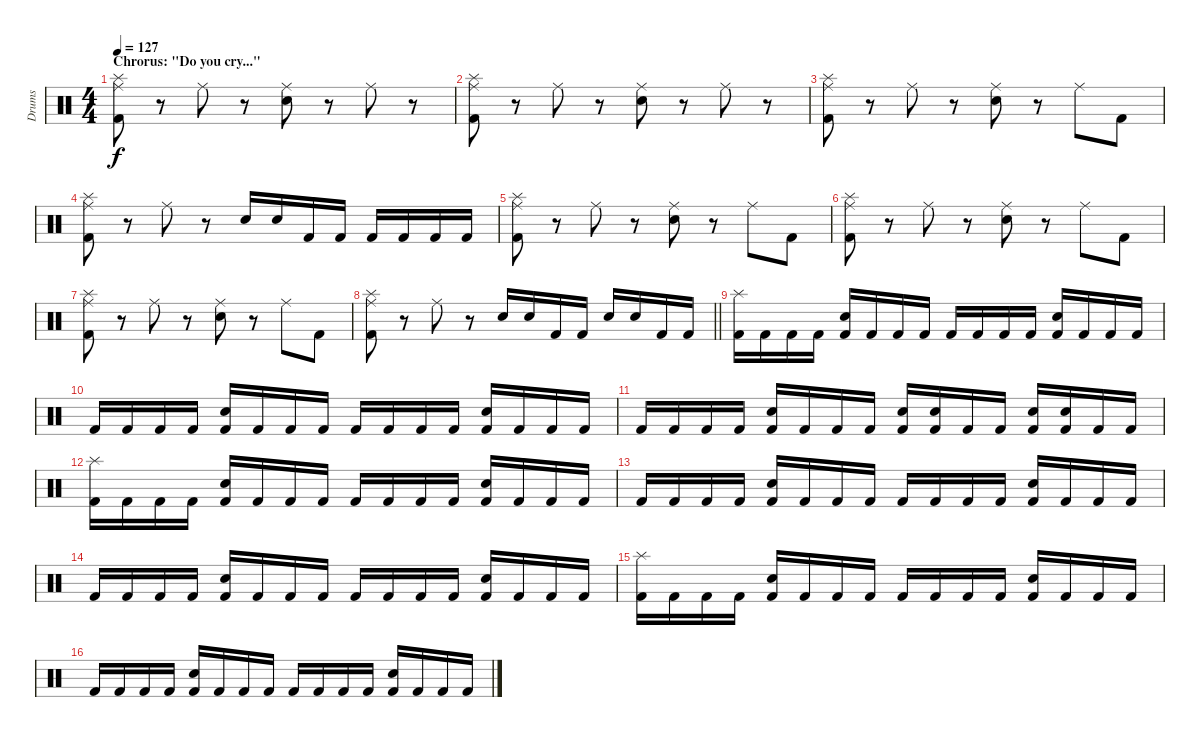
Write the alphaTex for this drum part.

\track ("Drums" "Drums") {instrument percussion}
\staff {score}
\articulation defaults
\ts (4 4)
\section ("" "Chrorus: \"Do you cry...\"")
\tempo 127
\clef neutral
\ks c
("Ride (middle)" "Kick (hit) 2" "Splash (hit)").8{dy f} r.8 "Ride (middle)".8 r.8 ("Ride (middle)" "Electric Snare (hit)").8 r.8 "Ride (middle)".8 r.8 |
("Ride (middle)" "Kick (hit) 2" "Splash (hit)").8 r.8 "Ride (middle)".8 r.8 ("Ride (middle)" "Electric Snare (hit)").8 r.8 "Ride (middle)".8 r.8 |
("Ride (middle)" "Kick (hit) 2" "Splash (hit)").8 r.8 "Ride (middle)".8 r.8 ("Ride (middle)" "Electric Snare (hit)").8 r.8 "Ride (middle)".8 "Kick (hit) 2".8 |
("Ride (middle)" "Kick (hit) 2" "Splash (hit)").8 r.8 "Ride (middle)".8 r.8 "Electric Snare (hit)".16 "Electric Snare (hit)".16 "Kick (hit) 2".16 "Kick (hit) 2".16 "Kick (hit) 2".16 "Kick (hit) 2".16 "Kick (hit) 2".16 "Kick (hit) 2".16 |
("Ride (middle)" "Kick (hit) 2" "Splash (hit)").8 r.8 "Ride (middle)".8 r.8 ("Ride (middle)" "Electric Snare (hit)").8 r.8 "Ride (middle)".8 "Kick (hit) 2".8 |
("Ride (middle)" "Kick (hit) 2" "Splash (hit)").8 r.8 "Ride (middle)".8 r.8 ("Ride (middle)" "Electric Snare (hit)").8 r.8 "Ride (middle)".8 "Kick (hit) 2".8 |
("Ride (middle)" "Kick (hit) 2" "Splash (hit)").8 r.8 "Ride (middle)".8 r.8 ("Ride (middle)" "Electric Snare (hit)").8 r.8 "Ride (middle)".8 "Kick (hit) 2".8 |
\barLineRight lightlight
("Ride (middle)" "Kick (hit) 2" "Splash (hit)").8 r.8 "Ride (middle)".8 r.8 "Electric Snare (hit)".16 "Electric Snare (hit)".16 "Kick (hit) 2".16 "Kick (hit) 2".16 "Electric Snare (hit)".16 "Electric Snare (hit)".16 "Kick (hit) 2".16 "Kick (hit) 2".16 |
\section ("" "")
("Kick (hit) 2" "Splash (hit)").16 "Kick (hit) 2".16 "Kick (hit) 2".16 "Kick (hit) 2".16 ("Kick (hit) 2" "Electric Snare (hit)").16 "Kick (hit) 2".16 "Kick (hit) 2".16 "Kick (hit) 2".16 "Kick (hit) 2".16 "Kick (hit) 2".16 "Kick (hit) 2".16 "Kick (hit) 2".16 ("Kick (hit) 2" "Electric Snare (hit)").16 "Kick (hit) 2".16 "Kick (hit) 2".16 "Kick (hit) 2".16 |
"Kick (hit) 2".16 "Kick (hit) 2".16 "Kick (hit) 2".16 "Kick (hit) 2".16 ("Kick (hit) 2" "Electric Snare (hit)").16 "Kick (hit) 2".16 "Kick (hit) 2".16 "Kick (hit) 2".16 "Kick (hit) 2".16 "Kick (hit) 2".16 "Kick (hit) 2".16 "Kick (hit) 2".16 ("Kick (hit) 2" "Electric Snare (hit)").16 "Kick (hit) 2".16 "Kick (hit) 2".16 "Kick (hit) 2".16 |
"Kick (hit) 2".16 "Kick (hit) 2".16 "Kick (hit) 2".16 "Kick (hit) 2".16 ("Kick (hit) 2" "Electric Snare (hit)").16 "Kick (hit) 2".16 "Kick (hit) 2".16 "Kick (hit) 2".16 ("Kick (hit) 2" "Electric Snare (hit)").16 ("Kick (hit) 2" "Electric Snare (hit)").16 "Kick (hit) 2".16 "Kick (hit) 2".16 ("Kick (hit) 2" "Electric Snare (hit)").16 ("Kick (hit) 2" "Electric Snare (hit)").16 "Kick (hit) 2".16 "Kick (hit) 2".16 |
("Kick (hit) 2" "Splash (hit)").16 "Kick (hit) 2".16 "Kick (hit) 2".16 "Kick (hit) 2".16 ("Kick (hit) 2" "Electric Snare (hit)").16 "Kick (hit) 2".16 "Kick (hit) 2".16 "Kick (hit) 2".16 "Kick (hit) 2".16 "Kick (hit) 2".16 "Kick (hit) 2".16 "Kick (hit) 2".16 ("Kick (hit) 2" "Electric Snare (hit)").16 "Kick (hit) 2".16 "Kick (hit) 2".16 "Kick (hit) 2".16 |
"Kick (hit) 2".16 "Kick (hit) 2".16 "Kick (hit) 2".16 "Kick (hit) 2".16 ("Kick (hit) 2" "Electric Snare (hit)").16 "Kick (hit) 2".16 "Kick (hit) 2".16 "Kick (hit) 2".16 "Kick (hit) 2".16 "Kick (hit) 2".16 "Kick (hit) 2".16 "Kick (hit) 2".16 ("Kick (hit) 2" "Electric Snare (hit)").16 "Kick (hit) 2".16 "Kick (hit) 2".16 "Kick (hit) 2".16 |
"Kick (hit) 2".16 "Kick (hit) 2".16 "Kick (hit) 2".16 "Kick (hit) 2".16 ("Kick (hit) 2" "Electric Snare (hit)").16 "Kick (hit) 2".16 "Kick (hit) 2".16 "Kick (hit) 2".16 "Kick (hit) 2".16 "Kick (hit) 2".16 "Kick (hit) 2".16 "Kick (hit) 2".16 ("Kick (hit) 2" "Electric Snare (hit)").16 "Kick (hit) 2".16 "Kick (hit) 2".16 "Kick (hit) 2".16 |
("Kick (hit) 2" "Splash (hit)").16 "Kick (hit) 2".16 "Kick (hit) 2".16 "Kick (hit) 2".16 ("Kick (hit) 2" "Electric Snare (hit)").16 "Kick (hit) 2".16 "Kick (hit) 2".16 "Kick (hit) 2".16 "Kick (hit) 2".16 "Kick (hit) 2".16 "Kick (hit) 2".16 "Kick (hit) 2".16 ("Kick (hit) 2" "Electric Snare (hit)").16 "Kick (hit) 2".16 "Kick (hit) 2".16 "Kick (hit) 2".16 |
"Kick (hit) 2".16 "Kick (hit) 2".16 "Kick (hit) 2".16 "Kick (hit) 2".16 ("Kick (hit) 2" "Electric Snare (hit)").16 "Kick (hit) 2".16 "Kick (hit) 2".16 "Kick (hit) 2".16 "Kick (hit) 2".16 "Kick (hit) 2".16 "Kick (hit) 2".16 "Kick (hit) 2".16 ("Kick (hit) 2" "Electric Snare (hit)").16 "Kick (hit) 2".16 "Kick (hit) 2".16 "Kick (hit) 2".16
